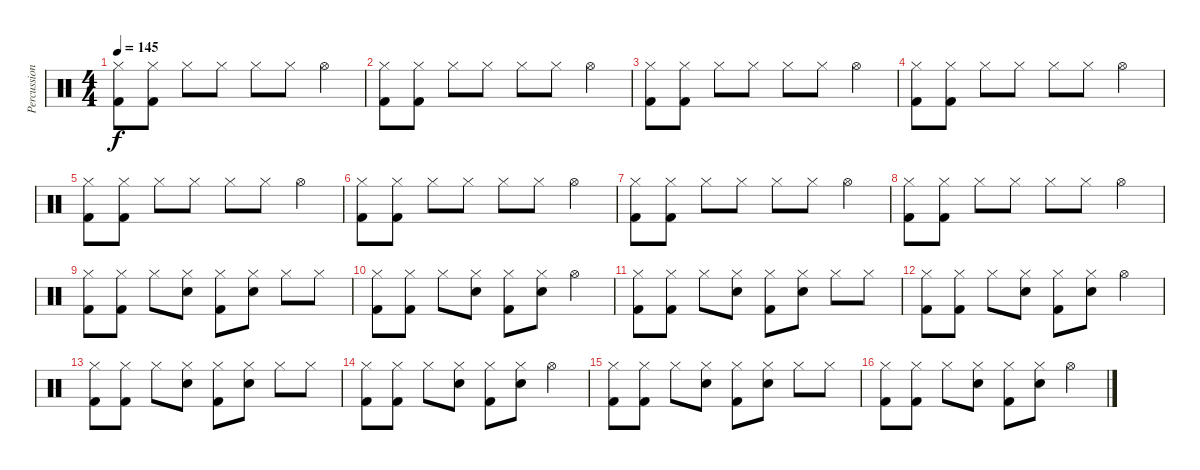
\track ("Percussion" "Percussion") {instrument percussion}
\staff {score}
\articulation defaults
\ts (4 4)
\tempo 145
\clef neutral
\ks c
("Hi-Hat (closed)" "Kick (hit) 2").8{dy f} ("Hi-Hat (closed)" "Kick (hit) 2").8 "Hi-Hat (closed)".8 "Hi-Hat (closed)".8 "Hi-Hat (closed)".8 "Hi-Hat (closed)".8 "Hi-Hat (open)".4 |
("Hi-Hat (closed)" "Kick (hit) 2").8 ("Hi-Hat (closed)" "Kick (hit) 2").8 "Hi-Hat (closed)".8 "Hi-Hat (closed)".8 "Hi-Hat (closed)".8 "Hi-Hat (closed)".8 "Hi-Hat (open)".4 |
("Hi-Hat (closed)" "Kick (hit) 2").8 ("Hi-Hat (closed)" "Kick (hit) 2").8 "Hi-Hat (closed)".8 "Hi-Hat (closed)".8 "Hi-Hat (closed)".8 "Hi-Hat (closed)".8 "Hi-Hat (open)".4 |
("Hi-Hat (closed)" "Kick (hit) 2").8 ("Hi-Hat (closed)" "Kick (hit) 2").8 "Hi-Hat (closed)".8 "Hi-Hat (closed)".8 "Hi-Hat (closed)".8 "Hi-Hat (closed)".8 "Hi-Hat (open)".4 |
("Hi-Hat (closed)" "Kick (hit) 2").8 ("Hi-Hat (closed)" "Kick (hit) 2").8 "Hi-Hat (closed)".8 "Hi-Hat (closed)".8 "Hi-Hat (closed)".8 "Hi-Hat (closed)".8 "Hi-Hat (open)".4 |
("Hi-Hat (closed)" "Kick (hit) 2").8 ("Hi-Hat (closed)" "Kick (hit) 2").8 "Hi-Hat (closed)".8 "Hi-Hat (closed)".8 "Hi-Hat (closed)".8 "Hi-Hat (closed)".8 "Hi-Hat (open)".4 |
("Hi-Hat (closed)" "Kick (hit) 2").8 ("Hi-Hat (closed)" "Kick (hit) 2").8 "Hi-Hat (closed)".8 "Hi-Hat (closed)".8 "Hi-Hat (closed)".8 "Hi-Hat (closed)".8 "Hi-Hat (open)".4 |
("Hi-Hat (closed)" "Kick (hit) 2").8 ("Hi-Hat (closed)" "Kick (hit) 2").8 "Hi-Hat (closed)".8 "Hi-Hat (closed)".8 "Hi-Hat (closed)".8 "Hi-Hat (closed)".8 "Hi-Hat (open)".4 |
("Hi-Hat (closed)" "Kick (hit) 2").8 ("Hi-Hat (closed)" "Kick (hit) 2").8 "Hi-Hat (closed)".8 ("Hi-Hat (closed)" "Electric Snare (hit)").8 ("Hi-Hat (closed)" "Kick (hit) 2").8 ("Hi-Hat (closed)" "Electric Snare (hit)").8 "Hi-Hat (closed)".8 "Hi-Hat (closed)".8 |
("Hi-Hat (closed)" "Kick (hit) 2").8 ("Hi-Hat (closed)" "Kick (hit) 2").8 "Hi-Hat (closed)".8 ("Hi-Hat (closed)" "Electric Snare (hit)").8 ("Hi-Hat (closed)" "Kick (hit) 2").8 ("Hi-Hat (closed)" "Electric Snare (hit)").8 "Hi-Hat (open)".4 |
("Hi-Hat (closed)" "Kick (hit) 2").8 ("Hi-Hat (closed)" "Kick (hit) 2").8 "Hi-Hat (closed)".8 ("Hi-Hat (closed)" "Electric Snare (hit)").8 ("Hi-Hat (closed)" "Kick (hit) 2").8 ("Hi-Hat (closed)" "Electric Snare (hit)").8 "Hi-Hat (closed)".8 "Hi-Hat (closed)".8 |
("Hi-Hat (closed)" "Kick (hit) 2").8 ("Hi-Hat (closed)" "Kick (hit) 2").8 "Hi-Hat (closed)".8 ("Hi-Hat (closed)" "Electric Snare (hit)").8 ("Hi-Hat (closed)" "Kick (hit) 2").8 ("Hi-Hat (closed)" "Electric Snare (hit)").8 "Hi-Hat (open)".4 |
("Hi-Hat (closed)" "Kick (hit) 2").8 ("Hi-Hat (closed)" "Kick (hit) 2").8 "Hi-Hat (closed)".8 ("Hi-Hat (closed)" "Electric Snare (hit)").8 ("Hi-Hat (closed)" "Kick (hit) 2").8 ("Hi-Hat (closed)" "Electric Snare (hit)").8 "Hi-Hat (closed)".8 "Hi-Hat (closed)".8 |
("Hi-Hat (closed)" "Kick (hit) 2").8 ("Hi-Hat (closed)" "Kick (hit) 2").8 "Hi-Hat (closed)".8 ("Hi-Hat (closed)" "Electric Snare (hit)").8 ("Hi-Hat (closed)" "Kick (hit) 2").8 ("Hi-Hat (closed)" "Electric Snare (hit)").8 "Hi-Hat (open)".4 |
("Hi-Hat (closed)" "Kick (hit) 2").8 ("Hi-Hat (closed)" "Kick (hit) 2").8 "Hi-Hat (closed)".8 ("Hi-Hat (closed)" "Electric Snare (hit)").8 ("Hi-Hat (closed)" "Kick (hit) 2").8 ("Hi-Hat (closed)" "Electric Snare (hit)").8 "Hi-Hat (closed)".8 "Hi-Hat (closed)".8 |
("Hi-Hat (closed)" "Kick (hit) 2").8 ("Hi-Hat (closed)" "Kick (hit) 2").8 "Hi-Hat (closed)".8 ("Hi-Hat (closed)" "Electric Snare (hit)").8 ("Hi-Hat (closed)" "Kick (hit) 2").8 ("Hi-Hat (closed)" "Electric Snare (hit)").8 "Hi-Hat (open)".4
